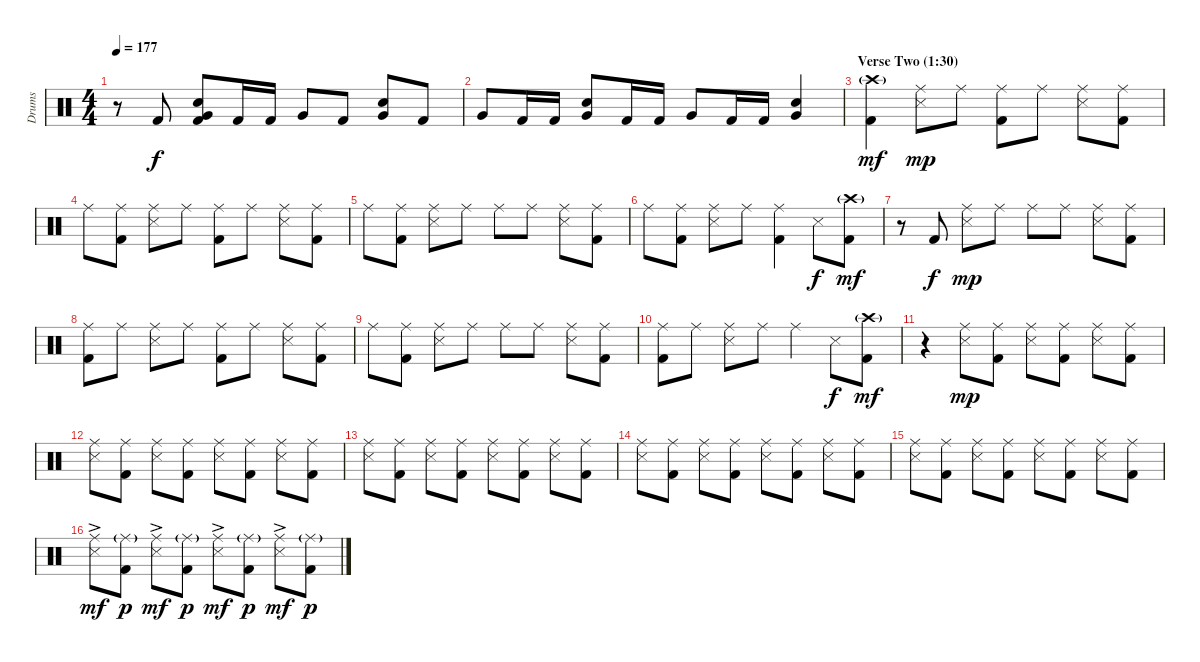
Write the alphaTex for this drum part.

\track ("Drums" "Drums") {instrument percussion}
\staff {score}
\articulation defaults
\ts (4 4)
\tempo 177
\clef neutral
\ks c
r.8{dy f} "Kick (hit) 2".8 ("Snare (hit) 2" "Very Low Tom (hit)" "Kick (hit) 2").8 "Kick (hit) 2".16 "Kick (hit) 2".16 "Very Low Tom (hit)".8 "Kick (hit) 2".8 ("Snare (hit) 2" "Very Low Tom (hit)").8 "Kick (hit) 2".8 |
"Very Low Tom (hit)".8 "Kick (hit) 2".16 "Kick (hit) 2".16 ("Snare (hit) 2" "Very Low Tom (hit)").8 "Kick (hit) 2".16 "Kick (hit) 2".16 "Very Low Tom (hit)".8 "Kick (hit) 2".16 "Kick (hit) 2".16 ("Snare (hit) 2" "Very Low Tom (hit)").4 |
\section ("" "Verse Two (1:30)")
("Crash high (hit)"{g} "Kick (hit) 2").4{dy mf} ("Ride (middle)" "Snare (side stick) 3").8{dy mp} "Ride (middle)".8 ("Ride (middle)" "Kick (hit) 2").8 "Ride (middle)".8 ("Ride (middle)" "Snare (side stick) 3").8 ("Ride (middle)" "Kick (hit) 2").8 |
"Ride (middle)".8 ("Ride (middle)" "Kick (hit) 2").8 ("Ride (middle)" "Snare (side stick) 3").8 "Ride (middle)".8 ("Ride (middle)" "Kick (hit) 2").8 "Ride (middle)".8 ("Ride (middle)" "Snare (side stick) 3").8 ("Ride (middle)" "Kick (hit) 2").8 |
"Ride (middle)".8 ("Ride (middle)" "Kick (hit) 2").8 ("Ride (middle)" "Snare (side stick) 3").8 "Ride (middle)".8 "Ride (middle)".8 "Ride (middle)".8 ("Ride (middle)" "Snare (side stick) 3").8 ("Ride (middle)" "Kick (hit) 2").8 |
"Ride (middle)".8 ("Ride (middle)" "Kick (hit) 2").8 ("Ride (middle)" "Snare (side stick) 3").8 "Ride (middle)".8 ("Ride (middle)" "Kick (hit) 2").4 "Snare (side stick) 3".8{dy f} ("Crash high (hit)"{g} "Kick (hit) 2").8{dy mf} |
r.8 "Kick (hit) 2".8{dy f} ("Ride (middle)" "Snare (side stick) 3").8{dy mp} "Ride (middle)".8 "Ride (middle)".8 "Ride (middle)".8 ("Ride (middle)" "Snare (side stick) 3").8 ("Ride (middle)" "Kick (hit) 2").8 |
("Ride (middle)" "Kick (hit) 2").8 "Ride (middle)".8 ("Ride (middle)" "Snare (side stick) 3").8 "Ride (middle)".8 ("Ride (middle)" "Kick (hit) 2").8 "Ride (middle)".8 ("Ride (middle)" "Snare (side stick) 3").8 ("Ride (middle)" "Kick (hit) 2").8 |
"Ride (middle)".8 ("Ride (middle)" "Kick (hit) 2").8 ("Ride (middle)" "Snare (side stick) 3").8 "Ride (middle)".8 "Ride (middle)".8 "Ride (middle)".8 ("Ride (middle)" "Snare (side stick) 3").8 ("Ride (middle)" "Kick (hit) 2").8 |
("Ride (middle)" "Kick (hit) 2").8 "Ride (middle)".8 ("Ride (middle)" "Snare (side stick) 3").8 "Ride (middle)".8 "Ride (middle)".4 "Snare (side stick) 3".8{dy f} ("Crash high (hit)"{g} "Kick (hit) 2").8{dy mf} |
r.4 ("Ride (middle)" "Snare (side stick) 3").8{dy mp} ("Ride (middle)" "Kick (hit) 2").8 ("Ride (middle)" "Snare (side stick) 3").8 ("Ride (middle)" "Kick (hit) 2").8 ("Ride (middle)" "Snare (side stick) 3").8 ("Ride (middle)" "Kick (hit) 2").8 |
("Ride (middle)" "Snare (side stick) 3").8 ("Ride (middle)" "Kick (hit) 2").8 ("Ride (middle)" "Snare (side stick) 3").8 ("Ride (middle)" "Kick (hit) 2").8 ("Ride (middle)" "Snare (side stick) 3").8 ("Ride (middle)" "Kick (hit) 2").8 ("Ride (middle)" "Snare (side stick) 3").8 ("Ride (middle)" "Kick (hit) 2").8 |
("Ride (middle)" "Snare (side stick) 3").8 ("Ride (middle)" "Kick (hit) 2").8 ("Ride (middle)" "Snare (side stick) 3").8 ("Ride (middle)" "Kick (hit) 2").8 ("Ride (middle)" "Snare (side stick) 3").8 ("Ride (middle)" "Kick (hit) 2").8 ("Ride (middle)" "Snare (side stick) 3").8 ("Ride (middle)" "Kick (hit) 2").8 |
("Ride (middle)" "Snare (side stick) 3").8 ("Ride (middle)" "Kick (hit) 2").8 ("Ride (middle)" "Snare (side stick) 3").8 ("Ride (middle)" "Kick (hit) 2").8 ("Ride (middle)" "Snare (side stick) 3").8 ("Ride (middle)" "Kick (hit) 2").8 ("Ride (middle)" "Snare (side stick) 3").8 ("Ride (middle)" "Kick (hit) 2").8 |
("Ride (middle)" "Snare (side stick) 3").8 ("Ride (middle)" "Kick (hit) 2").8 ("Ride (middle)" "Snare (side stick) 3").8 ("Ride (middle)" "Kick (hit) 2").8 ("Ride (middle)" "Snare (side stick) 3").8 ("Ride (middle)" "Kick (hit) 2").8 ("Ride (middle)" "Snare (side stick) 3").8 ("Ride (middle)" "Kick (hit) 2").8 |
("Ride (middle)"{ac} "Snare (side stick) 3").8{dy mf} ("Ride (middle)"{g} "Kick (hit) 2").8{dy p} ("Ride (middle)"{ac} "Snare (side stick) 3").8{dy mf} ("Ride (middle)"{g} "Kick (hit) 2").8{dy p} ("Ride (middle)"{ac} "Snare (side stick) 3").8{dy mf} ("Ride (middle)"{g} "Kick (hit) 2").8{dy p} ("Ride (middle)"{ac} "Snare (side stick) 3").8{dy mf} ("Ride (middle)"{g} "Kick (hit) 2").8{dy p}
